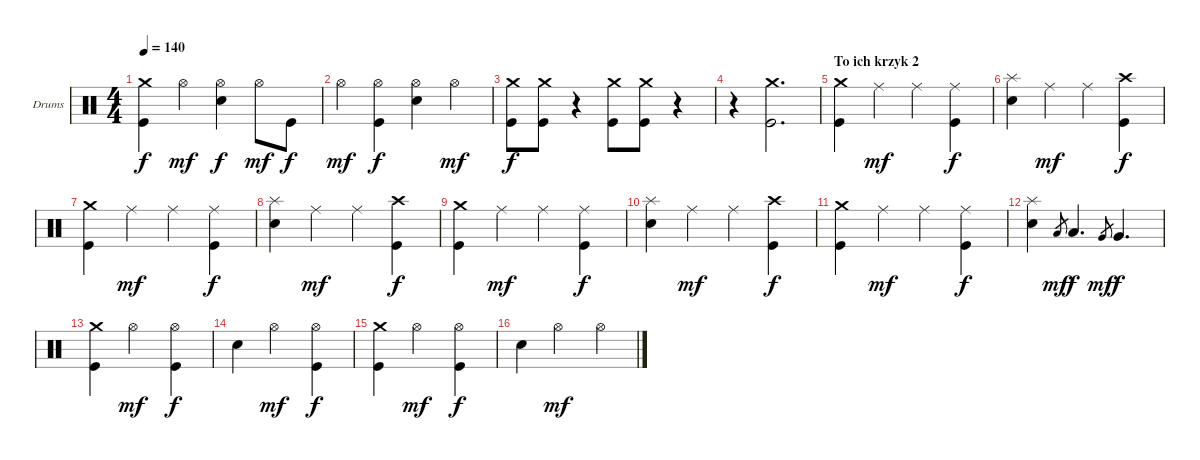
\bracketExtendMode groupsimilarinstruments
\firstSystemTrackNameOrientation horizontal
\otherSystemsTrackNameOrientation horizontal
\track ("Drumkit" "Drums") {instrument percussion}
\staff {score}
\articulation defaults
\ts (4 4)
\tempo 140
\clef neutral
\ks c
("Kick (hit)" "Crash medium (hit)").4{dy f} "Hi-Hat (open)".4{dy mf} ("Snare (hit) 2" "Hi-Hat (open)").4{dy f} "Hi-Hat (open)".8{dy mf} "Kick (hit)".8{dy f} |
"Hi-Hat (open)".4{dy mf} ("Kick (hit)" "Hi-Hat (open)").4{dy f} ("Snare (hit) 2" "Hi-Hat (open)").4 "Hi-Hat (open)".4{dy mf} |
("Kick (hit)" "Crash medium (hit)").8{dy f} ("Kick (hit)" "Crash medium (hit)").8 r.4 ("Kick (hit)" "Crash medium (hit)").8 ("Kick (hit)" "Crash medium (hit)").8 r.4 |
r.4 ("Kick (hit)" "Crash medium (hit)").2{d} |
\section ("" "To ich krzyk 2")
("Kick (hit)" "Crash medium (hit)").4 "Ride (middle)".4{dy mf} "Ride (middle)".4 ("Kick (hit)" "Ride (middle)").4{dy f} |
("Snare (hit) 2" "Splash (hit)").4 "Ride (middle)".4{dy mf} "Ride (middle)".4 ("Kick (hit)" "Crash high (hit)").4{dy f} |
("Kick (hit)" "Crash medium (hit)").4 "Ride (middle)".4{dy mf} "Ride (middle)".4 ("Kick (hit)" "Ride (middle)").4{dy f} |
("Snare (hit) 2" "Splash (hit)").4 "Ride (middle)".4{dy mf} "Ride (middle)".4 ("Kick (hit)" "Crash high (hit)").4{dy f} |
("Kick (hit)" "Crash medium (hit)").4 "Ride (middle)".4{dy mf} "Ride (middle)".4 ("Kick (hit)" "Ride (middle)").4{dy f} |
("Snare (hit) 2" "Splash (hit)").4 "Ride (middle)".4{dy mf} "Ride (middle)".4 ("Kick (hit)" "Crash high (hit)").4{dy f} |
("Kick (hit)" "Crash medium (hit)").4 "Ride (middle)".4{dy mf} "Ride (middle)".4 ("Kick (hit)" "Ride (middle)").4{dy f} |
("Snare (hit) 2" "Splash (hit)").4 "Low Tom (hit)".8{gr dy mf} "Low Tom (hit)".4{d dy f} "Very Low Tom (hit)".8{gr dy mf} "Very Low Tom (hit)".4{d dy f} |
("Kick (hit)" "Crash medium (hit)").4 "Hi-Hat (open)".2{dy mf} ("Kick (hit)" "Hi-Hat (open)").4{dy f} |
"Snare (hit) 2".4 "Hi-Hat (open)".2{dy mf} ("Kick (hit)" "Hi-Hat (open)").4{dy f} |
("Kick (hit)" "Crash medium (hit)").4 "Hi-Hat (open)".2{dy mf} ("Kick (hit)" "Hi-Hat (open)").4{dy f} |
"Snare (hit) 2".4 "Hi-Hat (open)".2{dy mf} "Hi-Hat (open)".4
